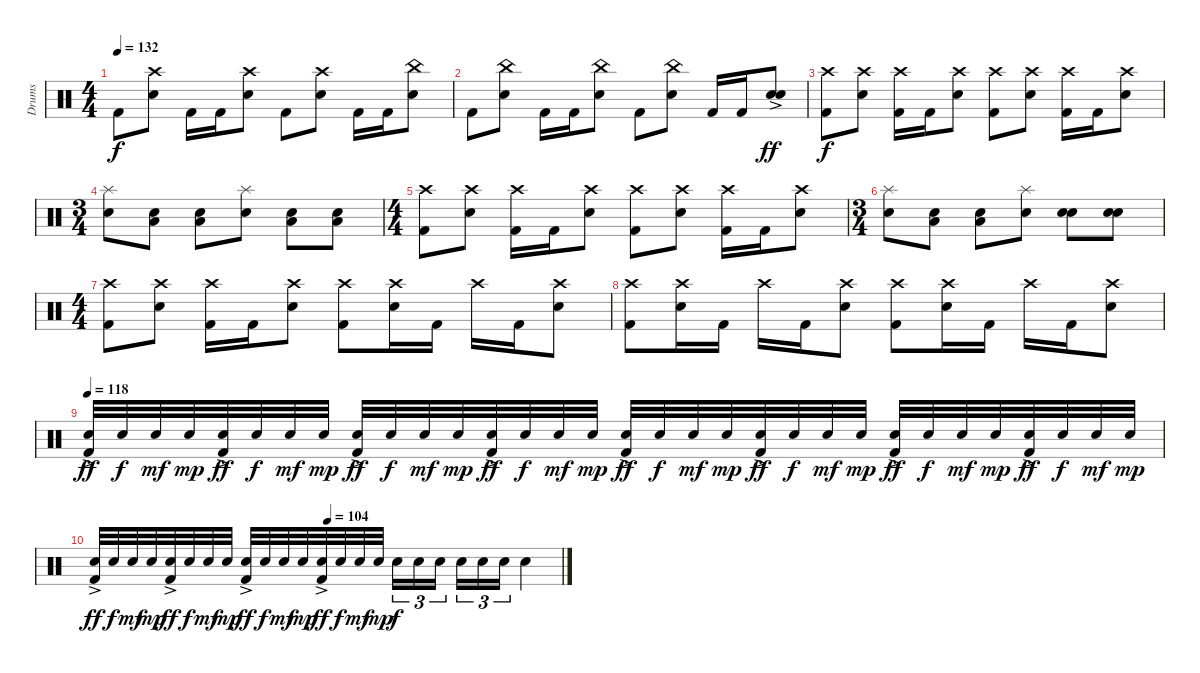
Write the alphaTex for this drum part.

\track ("Drums" "Drums") {instrument percussion}
\staff {score}
\articulation defaults
\ts (4 4)
\tempo 132
\clef neutral
\ks c "Kick (hit) 2".8{dy f}
("Crash high (hit)" "Electric Snare (hit)").8 "Kick (hit) 2".16 "Kick (hit) 2".16 ("Crash high (hit)" "Electric Snare (hit)").8 "Kick (hit) 2".8 ("Crash high (hit)" "Electric Snare (hit)").8 "Kick (hit) 2".16 "Kick (hit) 2".16 ("China (hit)" "Electric Snare (hit)").8 |
"Kick (hit) 2".8 ("China (hit)" "Electric Snare (hit)").8 "Kick (hit) 2".16 "Kick (hit) 2".16 ("China (hit)" "Electric Snare (hit)").8 "Kick (hit) 2".8 ("China (hit)" "Electric Snare (hit)").8 "Kick (hit) 2".16 "Kick (hit) 2".16 ("Electric Snare (hit)"{ac} "Electric Snare (hit)"{ac}).8{bd 240 dy ff} |
("Crash high (hit)" "Kick (hit) 2").8{dy f} ("Crash high (hit)" "Electric Snare (hit)").8 ("Crash high (hit)" "Kick (hit) 2").16 "Kick (hit) 2".16 ("Crash high (hit)" "Electric Snare (hit)").8 ("Crash high (hit)" "Kick (hit) 2").8 ("Crash high (hit)" "Electric Snare (hit)").8 ("Crash high (hit)" "Kick (hit) 2").16 "Kick (hit) 2".16 ("Crash high (hit)" "Electric Snare (hit)").8 |
\ts (3 4)
("Splash (hit)" "Electric Snare (hit)").8 ("Low Tom (hit)" "Electric Snare (hit)").8 ("Low Tom (hit)" "Electric Snare (hit)").8 ("Splash (hit)" "Electric Snare (hit)").8 ("Low Tom (hit)" "Electric Snare (hit)").8 ("Low Tom (hit)" "Electric Snare (hit)").8 |
\ts (4 4)
("Crash high (hit)" "Kick (hit) 2").8 ("Crash high (hit)" "Electric Snare (hit)").8 ("Crash high (hit)" "Kick (hit) 2").16 "Kick (hit) 2".16 ("Crash high (hit)" "Electric Snare (hit)").8 ("Crash high (hit)" "Kick (hit) 2").8 ("Crash high (hit)" "Electric Snare (hit)").8 ("Crash high (hit)" "Kick (hit) 2").16 "Kick (hit) 2".16 ("Crash high (hit)" "Electric Snare (hit)").8 |
\ts (3 4)
("Splash (hit)" "Electric Snare (hit)").8 ("Low Tom (hit)" "Electric Snare (hit)").8 ("Low Tom (hit)" "Electric Snare (hit)").8 ("Splash (hit)" "Electric Snare (hit)").8 ("Electric Snare (hit)" "Electric Snare (hit)").8{bd 240} ("Electric Snare (hit)" "Electric Snare (hit)").8{bd 240} |
\ts (4 4)
("Crash high (hit)" "Kick (hit) 2").8 ("Crash high (hit)" "Electric Snare (hit)").8 ("Crash high (hit)" "Kick (hit) 2").16 "Kick (hit) 2".16 ("Crash high (hit)" "Electric Snare (hit)").8 ("Crash high (hit)" "Kick (hit) 2").8 ("Crash high (hit)" "Electric Snare (hit)").16 "Kick (hit) 2".16 "Crash high (hit)".16 "Kick (hit) 2".16 ("Crash high (hit)" "Electric Snare (hit)").8 |
("Crash high (hit)" "Kick (hit) 2").8 ("Crash high (hit)" "Electric Snare (hit)").16 "Kick (hit) 2".16 "Crash high (hit)".16 "Kick (hit) 2".16 ("Crash high (hit)" "Electric Snare (hit)").8 ("Crash high (hit)" "Kick (hit) 2").8 ("Crash high (hit)" "Electric Snare (hit)").16 "Kick (hit) 2".16 "Crash high (hit)".16 "Kick (hit) 2".16 ("Crash high (hit)" "Electric Snare (hit)").8 |
\tempo 118
("Electric Snare (hit)"{ac} "Kick (hit) 2").32{dy ff} "Electric Snare (hit)".32{dy f} "Electric Snare (hit)".32{dy mf} "Electric Snare (hit)".32{dy mp} ("Electric Snare (hit)"{ac} "Kick (hit) 2").32{dy ff} "Electric Snare (hit)".32{dy f} "Electric Snare (hit)".32{dy mf} "Electric Snare (hit)".32{dy mp} ("Electric Snare (hit)"{ac} "Kick (hit) 2").32{dy ff} "Electric Snare (hit)".32{dy f} "Electric Snare (hit)".32{dy mf} "Electric Snare (hit)".32{dy mp} ("Electric Snare (hit)"{ac} "Kick (hit) 2").32{dy ff} "Electric Snare (hit)".32{dy f} "Electric Snare (hit)".32{dy mf} "Electric Snare (hit)".32{dy mp} ("Electric Snare (hit)"{ac} "Kick (hit) 2").32{dy ff} "Electric Snare (hit)".32{dy f} "Electric Snare (hit)".32{dy mf} "Electric Snare (hit)".32{dy mp} ("Electric Snare (hit)"{ac} "Kick (hit) 2").32{dy ff} "Electric Snare (hit)".32{dy f} "Electric Snare (hit)".32{dy mf} "Electric Snare (hit)".32{dy mp} ("Electric Snare (hit)"{ac} "Kick (hit) 2").32{dy ff} "Electric Snare (hit)".32{dy f} "Electric Snare (hit)".32{dy mf} "Electric Snare (hit)".32{dy mp} ("Electric Snare (hit)"{ac} "Kick (hit) 2").32{dy ff} "Electric Snare (hit)".32{dy f} "Electric Snare (hit)".32{dy mf} "Electric Snare (hit)".32{dy mp} |
\tempo (104 0.5)
("Electric Snare (hit)"{ac} "Kick (hit) 2").32{dy ff} "Electric Snare (hit)".32{dy f} "Electric Snare (hit)".32{dy mf} "Electric Snare (hit)".32{dy mp} ("Electric Snare (hit)"{ac} "Kick (hit) 2").32{dy ff} "Electric Snare (hit)".32{dy f} "Electric Snare (hit)".32{dy mf} "Electric Snare (hit)".32{dy mp} ("Electric Snare (hit)"{ac} "Kick (hit) 2").32{dy ff} "Electric Snare (hit)".32{dy f} "Electric Snare (hit)".32{dy mf} "Electric Snare (hit)".32{dy mp} ("Electric Snare (hit)"{ac} "Kick (hit) 2").32{dy ff} "Electric Snare (hit)".32{dy f} "Electric Snare (hit)".32{dy mf} "Electric Snare (hit)".32{dy mp} "Electric Snare (hit)".16{tu (3 2) dy f} "Electric Snare (hit)".16{tu (3 2)} "Electric Snare (hit)".16{tu (3 2) beam splitsecondary} "Electric Snare (hit)".16{tu (3 2)} "Electric Snare (hit)".16{tu (3 2)} "Electric Snare (hit)".16{tu (3 2)} "Electric Snare (hit)".4
